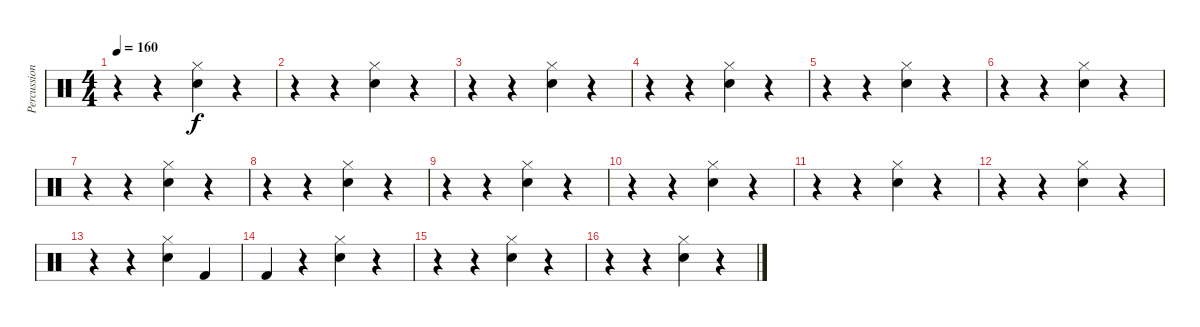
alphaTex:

\track ("Percussion" "Percussion") {instrument percussion}
\staff {score}
\articulation defaults
\ts (4 4)
\tempo 160
\clef neutral
\ks c
r.4{dy f} r.4 ("Hi-Hat (closed)" "Snare (hit) 2").4 r.4 |
r.4 r.4 ("Hi-Hat (closed)" "Snare (hit) 2").4 r.4 |
r.4 r.4 ("Hi-Hat (closed)" "Snare (hit) 2").4 r.4 |
r.4 r.4 ("Hi-Hat (closed)" "Snare (hit) 2").4 r.4 |
r.4 r.4 ("Hi-Hat (closed)" "Snare (hit) 2").4 r.4 |
r.4 r.4 ("Hi-Hat (closed)" "Snare (hit) 2").4 r.4 |
r.4 r.4 ("Hi-Hat (closed)" "Snare (hit) 2").4 r.4 |
r.4 r.4 ("Hi-Hat (closed)" "Snare (hit) 2").4 r.4 |
r.4 r.4 ("Hi-Hat (closed)" "Snare (hit) 2").4 r.4 |
r.4 r.4 ("Hi-Hat (closed)" "Snare (hit) 2").4 r.4 |
r.4 r.4 ("Hi-Hat (closed)" "Snare (hit) 2").4 r.4 |
r.4 r.4 ("Hi-Hat (closed)" "Snare (hit) 2").4 r.4 |
r.4 r.4 ("Hi-Hat (closed)" "Snare (hit) 2").4 "Kick (hit) 2".4 |
"Kick (hit) 2".4 r.4 ("Hi-Hat (closed)" "Snare (hit) 2").4 r.4 |
r.4 r.4 ("Hi-Hat (closed)" "Snare (hit) 2").4 r.4 |
r.4 r.4 ("Hi-Hat (closed)" "Snare (hit) 2").4 r.4
